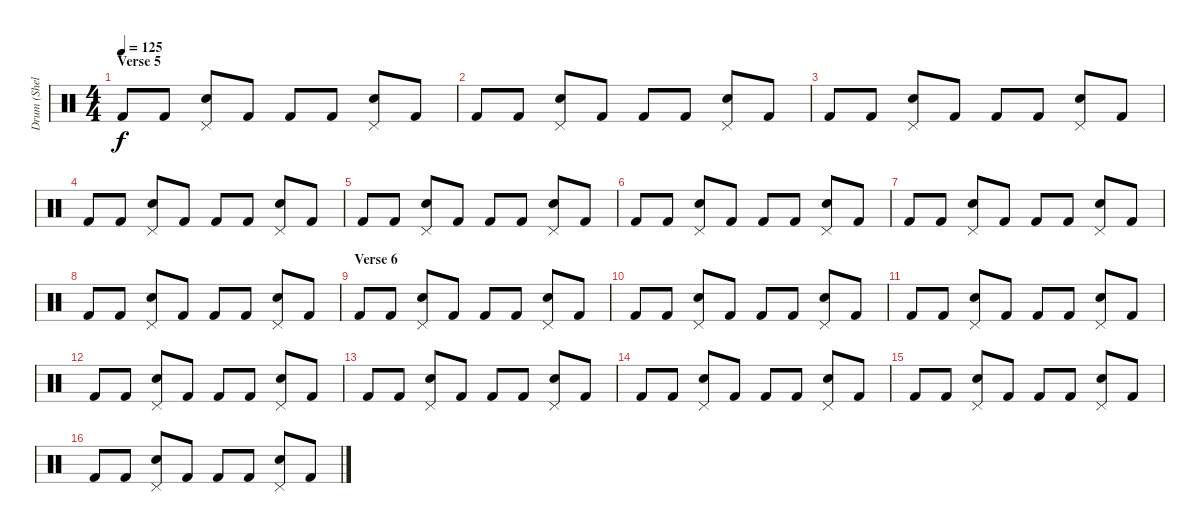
\track ("Drum (Shelley)" "Drum (Shel") {instrument percussion}
\staff {score}
\articulation defaults
\ts (4 4)
\section ("" "Verse 5")
\tempo 125
\clef neutral
\ks c "Kick (hit) 2".8{dy f} "Kick (hit) 2".8
("Pedal Hi-Hat (hit)" "Electric Snare (hit)").8 "Kick (hit) 2".8 "Kick (hit) 2".8 "Kick (hit) 2".8 ("Pedal Hi-Hat (hit)" "Electric Snare (hit)").8 "Kick (hit) 2".8 |
"Kick (hit) 2".8 "Kick (hit) 2".8 ("Pedal Hi-Hat (hit)" "Electric Snare (hit)").8 "Kick (hit) 2".8 "Kick (hit) 2".8 "Kick (hit) 2".8 ("Pedal Hi-Hat (hit)" "Electric Snare (hit)").8 "Kick (hit) 2".8 |
"Kick (hit) 2".8 "Kick (hit) 2".8 ("Pedal Hi-Hat (hit)" "Electric Snare (hit)").8 "Kick (hit) 2".8 "Kick (hit) 2".8 "Kick (hit) 2".8 ("Pedal Hi-Hat (hit)" "Electric Snare (hit)").8 "Kick (hit) 2".8 |
"Kick (hit) 2".8 "Kick (hit) 2".8 ("Pedal Hi-Hat (hit)" "Electric Snare (hit)").8 "Kick (hit) 2".8 "Kick (hit) 2".8 "Kick (hit) 2".8 ("Pedal Hi-Hat (hit)" "Electric Snare (hit)").8 "Kick (hit) 2".8 |
"Kick (hit) 2".8 "Kick (hit) 2".8 ("Pedal Hi-Hat (hit)" "Electric Snare (hit)").8 "Kick (hit) 2".8 "Kick (hit) 2".8 "Kick (hit) 2".8 ("Pedal Hi-Hat (hit)" "Electric Snare (hit)").8 "Kick (hit) 2".8 |
"Kick (hit) 2".8 "Kick (hit) 2".8 ("Pedal Hi-Hat (hit)" "Electric Snare (hit)").8 "Kick (hit) 2".8 "Kick (hit) 2".8 "Kick (hit) 2".8 ("Pedal Hi-Hat (hit)" "Electric Snare (hit)").8 "Kick (hit) 2".8 |
"Kick (hit) 2".8 "Kick (hit) 2".8 ("Pedal Hi-Hat (hit)" "Electric Snare (hit)").8 "Kick (hit) 2".8 "Kick (hit) 2".8 "Kick (hit) 2".8 ("Pedal Hi-Hat (hit)" "Electric Snare (hit)").8 "Kick (hit) 2".8 |
"Kick (hit) 2".8 "Kick (hit) 2".8 ("Pedal Hi-Hat (hit)" "Electric Snare (hit)").8 "Kick (hit) 2".8 "Kick (hit) 2".8 "Kick (hit) 2".8 ("Pedal Hi-Hat (hit)" "Electric Snare (hit)").8 "Kick (hit) 2".8 |
\section ("" "Verse 6")
"Kick (hit) 2".8 "Kick (hit) 2".8 ("Pedal Hi-Hat (hit)" "Electric Snare (hit)").8 "Kick (hit) 2".8 "Kick (hit) 2".8 "Kick (hit) 2".8 ("Pedal Hi-Hat (hit)" "Electric Snare (hit)").8 "Kick (hit) 2".8 |
"Kick (hit) 2".8 "Kick (hit) 2".8 ("Pedal Hi-Hat (hit)" "Electric Snare (hit)").8 "Kick (hit) 2".8 "Kick (hit) 2".8 "Kick (hit) 2".8 ("Pedal Hi-Hat (hit)" "Electric Snare (hit)").8 "Kick (hit) 2".8 |
"Kick (hit) 2".8 "Kick (hit) 2".8 ("Pedal Hi-Hat (hit)" "Electric Snare (hit)").8 "Kick (hit) 2".8 "Kick (hit) 2".8 "Kick (hit) 2".8 ("Pedal Hi-Hat (hit)" "Electric Snare (hit)").8 "Kick (hit) 2".8 |
"Kick (hit) 2".8 "Kick (hit) 2".8 ("Pedal Hi-Hat (hit)" "Electric Snare (hit)").8 "Kick (hit) 2".8 "Kick (hit) 2".8 "Kick (hit) 2".8 ("Pedal Hi-Hat (hit)" "Electric Snare (hit)").8 "Kick (hit) 2".8 |
"Kick (hit) 2".8 "Kick (hit) 2".8 ("Pedal Hi-Hat (hit)" "Electric Snare (hit)").8 "Kick (hit) 2".8 "Kick (hit) 2".8 "Kick (hit) 2".8 ("Pedal Hi-Hat (hit)" "Electric Snare (hit)").8 "Kick (hit) 2".8 |
"Kick (hit) 2".8 "Kick (hit) 2".8 ("Pedal Hi-Hat (hit)" "Electric Snare (hit)").8 "Kick (hit) 2".8 "Kick (hit) 2".8 "Kick (hit) 2".8 ("Pedal Hi-Hat (hit)" "Electric Snare (hit)").8 "Kick (hit) 2".8 |
"Kick (hit) 2".8 "Kick (hit) 2".8 ("Pedal Hi-Hat (hit)" "Electric Snare (hit)").8 "Kick (hit) 2".8 "Kick (hit) 2".8 "Kick (hit) 2".8 ("Pedal Hi-Hat (hit)" "Electric Snare (hit)").8 "Kick (hit) 2".8 |
"Kick (hit) 2".8 "Kick (hit) 2".8 ("Pedal Hi-Hat (hit)" "Electric Snare (hit)").8 "Kick (hit) 2".8 "Kick (hit) 2".8 "Kick (hit) 2".8 ("Pedal Hi-Hat (hit)" "Electric Snare (hit)").8 "Kick (hit) 2".8
